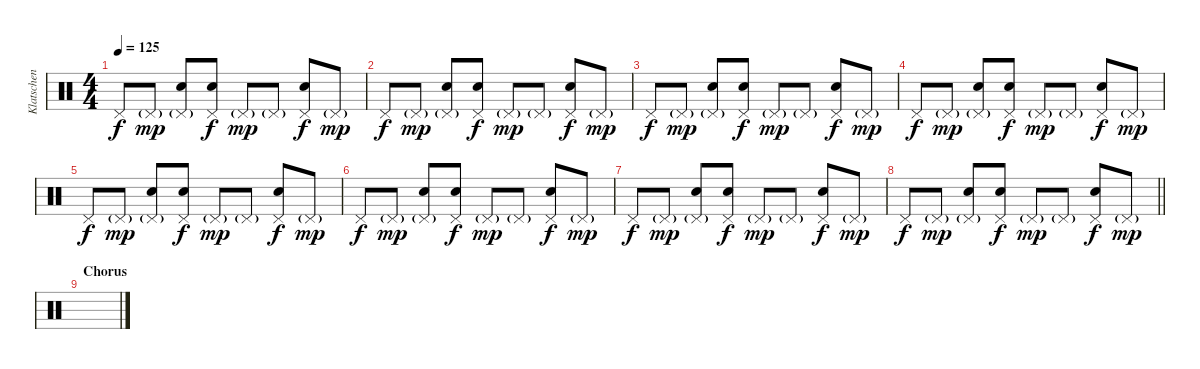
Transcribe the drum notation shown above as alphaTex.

\track ("Klatschen" "Klatschen") {instrument percussion}
\staff {score}
\articulation defaults
\ts (4 4)
\tempo 125
\clef neutral
\ks c "Pedal Hi-Hat (hit)".8{dy f} "Pedal Hi-Hat (hit)"{g}.8{dy mp}
("Pedal Hi-Hat (hit)"{g} "Hand Clap (hit)").8 ("Pedal Hi-Hat (hit)" "Hand Clap (hit)").8{dy f} "Pedal Hi-Hat (hit)"{g}.8{dy mp} "Pedal Hi-Hat (hit)"{g}.8 ("Pedal Hi-Hat (hit)" "Hand Clap (hit)").8{dy f} "Pedal Hi-Hat (hit)"{g}.8{dy mp} |
"Pedal Hi-Hat (hit)".8{dy f} "Pedal Hi-Hat (hit)"{g}.8{dy mp} ("Pedal Hi-Hat (hit)"{g} "Hand Clap (hit)").8 ("Pedal Hi-Hat (hit)" "Hand Clap (hit)").8{dy f} "Pedal Hi-Hat (hit)"{g}.8{dy mp} "Pedal Hi-Hat (hit)"{g}.8 ("Pedal Hi-Hat (hit)" "Hand Clap (hit)").8{dy f} "Pedal Hi-Hat (hit)"{g}.8{dy mp} |
"Pedal Hi-Hat (hit)".8{dy f} "Pedal Hi-Hat (hit)"{g}.8{dy mp} ("Pedal Hi-Hat (hit)"{g} "Hand Clap (hit)").8 ("Pedal Hi-Hat (hit)" "Hand Clap (hit)").8{dy f} "Pedal Hi-Hat (hit)"{g}.8{dy mp} "Pedal Hi-Hat (hit)"{g}.8 ("Pedal Hi-Hat (hit)" "Hand Clap (hit)").8{dy f} "Pedal Hi-Hat (hit)"{g}.8{dy mp} |
"Pedal Hi-Hat (hit)".8{dy f} "Pedal Hi-Hat (hit)"{g}.8{dy mp} ("Pedal Hi-Hat (hit)"{g} "Hand Clap (hit)").8 ("Pedal Hi-Hat (hit)" "Hand Clap (hit)").8{dy f} "Pedal Hi-Hat (hit)"{g}.8{dy mp} "Pedal Hi-Hat (hit)"{g}.8 ("Pedal Hi-Hat (hit)" "Hand Clap (hit)").8{dy f} "Pedal Hi-Hat (hit)"{g}.8{dy mp} |
"Pedal Hi-Hat (hit)".8{dy f} "Pedal Hi-Hat (hit)"{g}.8{dy mp} ("Pedal Hi-Hat (hit)"{g} "Hand Clap (hit)").8 ("Pedal Hi-Hat (hit)" "Hand Clap (hit)").8{dy f} "Pedal Hi-Hat (hit)"{g}.8{dy mp} "Pedal Hi-Hat (hit)"{g}.8 ("Pedal Hi-Hat (hit)" "Hand Clap (hit)").8{dy f} "Pedal Hi-Hat (hit)"{g}.8{dy mp} |
"Pedal Hi-Hat (hit)".8{dy f} "Pedal Hi-Hat (hit)"{g}.8{dy mp} ("Pedal Hi-Hat (hit)"{g} "Hand Clap (hit)").8 ("Pedal Hi-Hat (hit)" "Hand Clap (hit)").8{dy f} "Pedal Hi-Hat (hit)"{g}.8{dy mp} "Pedal Hi-Hat (hit)"{g}.8 ("Pedal Hi-Hat (hit)" "Hand Clap (hit)").8{dy f} "Pedal Hi-Hat (hit)"{g}.8{dy mp} |
"Pedal Hi-Hat (hit)".8{dy f} "Pedal Hi-Hat (hit)"{g}.8{dy mp} ("Pedal Hi-Hat (hit)"{g} "Hand Clap (hit)").8 ("Pedal Hi-Hat (hit)" "Hand Clap (hit)").8{dy f} "Pedal Hi-Hat (hit)"{g}.8{dy mp} "Pedal Hi-Hat (hit)"{g}.8 ("Pedal Hi-Hat (hit)" "Hand Clap (hit)").8{dy f} "Pedal Hi-Hat (hit)"{g}.8{dy mp} |
\barLineRight lightlight "Pedal Hi-Hat (hit)".8{dy f} "Pedal Hi-Hat (hit)"{g}.8{dy mp}
("Pedal Hi-Hat (hit)"{g} "Hand Clap (hit)").8 ("Pedal Hi-Hat (hit)" "Hand Clap (hit)").8{dy f} "Pedal Hi-Hat (hit)"{g}.8{dy mp} "Pedal Hi-Hat (hit)"{g}.8 ("Pedal Hi-Hat (hit)" "Hand Clap (hit)").8{dy f} "Pedal Hi-Hat (hit)"{g}.8{dy mp} |
\section ("" "Chorus")
